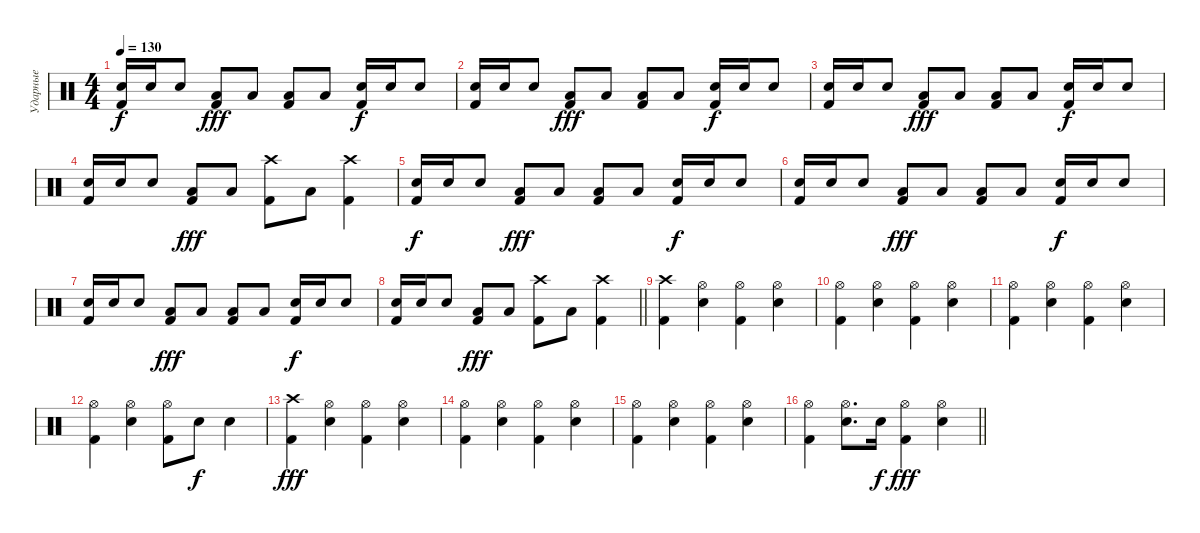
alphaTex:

\track ("Ударные" "Ударные") {instrument percussion}
\staff {score}
\articulation defaults
\ts (4 4)
\tempo 130
\clef neutral
\ks c
("Kick (hit) 2" "Snare (hit) 2").16{dy f} "Snare (hit) 2".16 "Snare (hit) 2".8 ("Kick (hit) 2" "Low Floor Tom (hit)").8{dy fff} "Low Floor Tom (hit)".8 ("Kick (hit) 2" "Low Floor Tom (hit)").8 "Low Floor Tom (hit)".8 ("Kick (hit) 2" "Snare (hit) 2").16{dy f} "Snare (hit) 2".16 "Snare (hit) 2".8 |
("Kick (hit) 2" "Snare (hit) 2").16 "Snare (hit) 2".16 "Snare (hit) 2".8 ("Kick (hit) 2" "Low Floor Tom (hit)").8{dy fff} "Low Floor Tom (hit)".8 ("Kick (hit) 2" "Low Floor Tom (hit)").8 "Low Floor Tom (hit)".8 ("Kick (hit) 2" "Snare (hit) 2").16{dy f} "Snare (hit) 2".16 "Snare (hit) 2".8 |
("Kick (hit) 2" "Snare (hit) 2").16 "Snare (hit) 2".16 "Snare (hit) 2".8 ("Kick (hit) 2" "Low Floor Tom (hit)").8{dy fff} "Low Floor Tom (hit)".8 ("Kick (hit) 2" "Low Floor Tom (hit)").8 "Low Floor Tom (hit)".8 ("Kick (hit) 2" "Snare (hit) 2").16{dy f} "Snare (hit) 2".16 "Snare (hit) 2".8 |
("Kick (hit) 2" "Snare (hit) 2").16 "Snare (hit) 2".16 "Snare (hit) 2".8 ("Kick (hit) 2" "Low Floor Tom (hit)").8{dy fff} "Low Floor Tom (hit)".8 ("Kick (hit) 2" "Crash high (hit)").8 "Low Floor Tom (hit)".8 ("Kick (hit) 2" "Crash high (hit)").4 |
("Kick (hit) 2" "Snare (hit) 2").16{dy f} "Snare (hit) 2".16 "Snare (hit) 2".8 ("Kick (hit) 2" "Low Floor Tom (hit)").8{dy fff} "Low Floor Tom (hit)".8 ("Kick (hit) 2" "Low Floor Tom (hit)").8 "Low Floor Tom (hit)".8 ("Kick (hit) 2" "Snare (hit) 2").16{dy f} "Snare (hit) 2".16 "Snare (hit) 2".8 |
("Kick (hit) 2" "Snare (hit) 2").16 "Snare (hit) 2".16 "Snare (hit) 2".8 ("Kick (hit) 2" "Low Floor Tom (hit)").8{dy fff} "Low Floor Tom (hit)".8 ("Kick (hit) 2" "Low Floor Tom (hit)").8 "Low Floor Tom (hit)".8 ("Kick (hit) 2" "Snare (hit) 2").16{dy f} "Snare (hit) 2".16 "Snare (hit) 2".8 |
("Kick (hit) 2" "Snare (hit) 2").16 "Snare (hit) 2".16 "Snare (hit) 2".8 ("Kick (hit) 2" "Low Floor Tom (hit)").8{dy fff} "Low Floor Tom (hit)".8 ("Kick (hit) 2" "Low Floor Tom (hit)").8 "Low Floor Tom (hit)".8 ("Kick (hit) 2" "Snare (hit) 2").16{dy f} "Snare (hit) 2".16 "Snare (hit) 2".8 |
\barLineRight lightlight
("Kick (hit) 2" "Snare (hit) 2").16 "Snare (hit) 2".16 "Snare (hit) 2".8 ("Kick (hit) 2" "Low Floor Tom (hit)").8{dy fff} "Low Floor Tom (hit)".8 ("Kick (hit) 2" "Crash high (hit)").8 "Low Floor Tom (hit)".8 ("Kick (hit) 2" "Crash high (hit)").4 |
("Kick (hit) 2" "Crash high (hit)").4 ("Snare (hit) 2" "Hi-Hat (open)").4 ("Kick (hit) 2" "Hi-Hat (open)").4 ("Snare (hit) 2" "Hi-Hat (open)").4 |
("Kick (hit) 2" "Hi-Hat (open)").4 ("Snare (hit) 2" "Hi-Hat (open)").4 ("Kick (hit) 2" "Hi-Hat (open)").4 ("Snare (hit) 2" "Hi-Hat (open)").4 |
("Kick (hit) 2" "Hi-Hat (open)").4 ("Snare (hit) 2" "Hi-Hat (open)").4 ("Kick (hit) 2" "Hi-Hat (open)").4 ("Snare (hit) 2" "Hi-Hat (open)").4 |
("Kick (hit) 2" "Hi-Hat (open)").4 ("Snare (hit) 2" "Hi-Hat (open)").4 ("Kick (hit) 2" "Hi-Hat (open)").8 "Snare (hit) 2".8{dy f} "Snare (hit) 2".4 |
("Kick (hit) 2" "Crash high (hit)").4{dy fff} ("Snare (hit) 2" "Hi-Hat (open)").4 ("Kick (hit) 2" "Hi-Hat (open)").4 ("Snare (hit) 2" "Hi-Hat (open)").4 |
("Kick (hit) 2" "Hi-Hat (open)").4 ("Snare (hit) 2" "Hi-Hat (open)").4 ("Kick (hit) 2" "Hi-Hat (open)").4 ("Snare (hit) 2" "Hi-Hat (open)").4 |
("Kick (hit) 2" "Hi-Hat (open)").4 ("Snare (hit) 2" "Hi-Hat (open)").4 ("Kick (hit) 2" "Hi-Hat (open)").4 ("Snare (hit) 2" "Hi-Hat (open)").4 |
\barLineRight lightlight
("Kick (hit) 2" "Hi-Hat (open)").4 ("Snare (hit) 2" "Hi-Hat (open)").8{d} "Snare (hit) 2".16{dy f} ("Kick (hit) 2" "Hi-Hat (open)").4{dy fff} ("Snare (hit) 2" "Hi-Hat (open)").4
